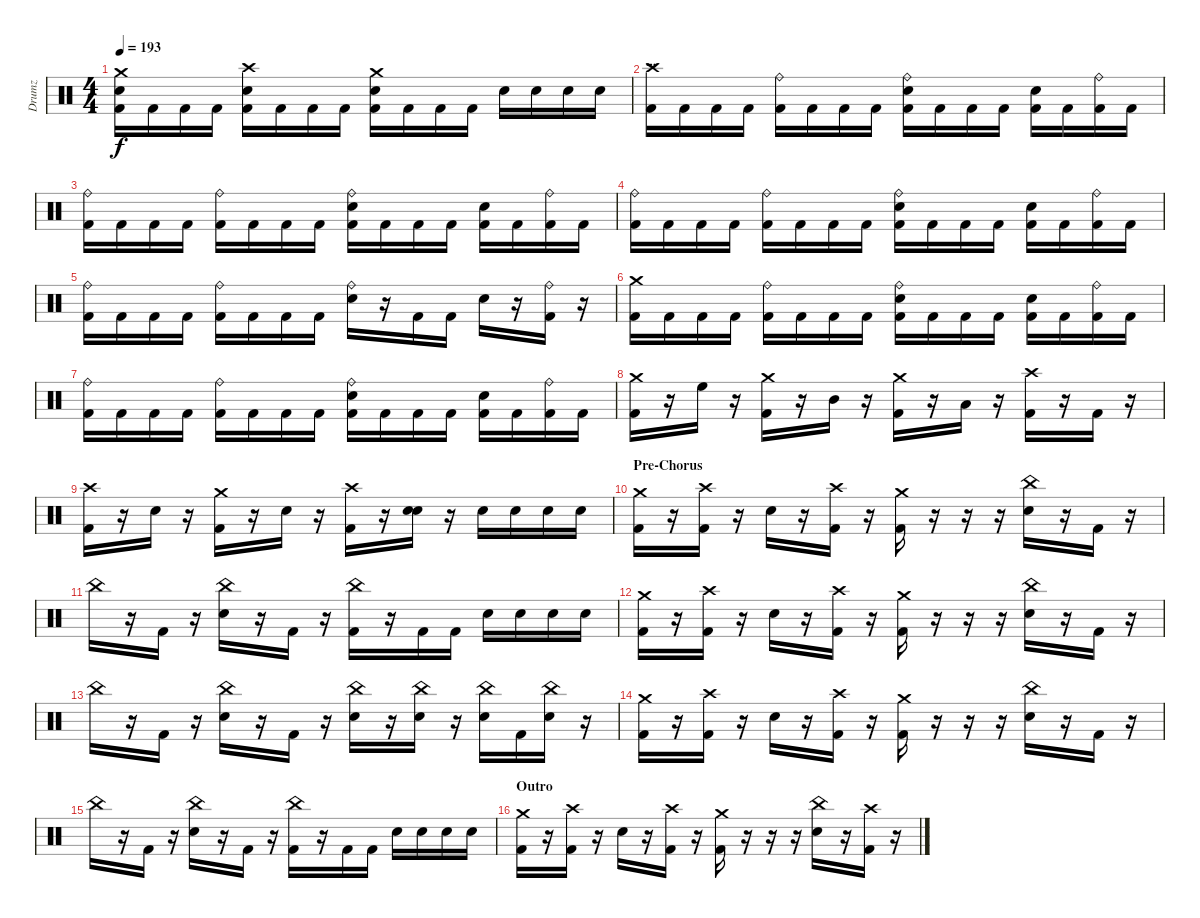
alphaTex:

\track ("Drumz" "Drumz") {instrument percussion}
\staff {score}
\articulation defaults
\ts (4 4)
\tempo 193
\clef neutral
\ks c
("Crash medium (hit)" "Electric Snare (hit)" "Kick (hit) 2").16{dy f} "Kick (hit) 2".16 "Kick (hit) 2".16 "Kick (hit) 2".16 ("Crash high (hit)" "Electric Snare (hit)" "Kick (hit) 2").16 "Kick (hit) 2".16 "Kick (hit) 2".16 "Kick (hit) 2".16 ("Crash medium (hit)" "Electric Snare (hit)" "Kick (hit) 2").16 "Kick (hit) 2".16 "Kick (hit) 2".16 "Kick (hit) 2".16 "Electric Snare (hit)".16 "Electric Snare (hit)".16 "Electric Snare (hit)".16 "Electric Snare (hit)".16 |
\section ("" "...")
("Crash high (hit)" "Kick (hit) 2").16 "Kick (hit) 2".16 "Kick (hit) 2".16 "Kick (hit) 2".16 ("Ride (bell)" "Kick (hit) 2").16 "Kick (hit) 2".16 "Kick (hit) 2".16 "Kick (hit) 2".16 ("Ride (bell)" "Electric Snare (hit)" "Kick (hit) 2").16 "Kick (hit) 2".16 "Kick (hit) 2".16 "Kick (hit) 2".16 ("Electric Snare (hit)" "Kick (hit) 2").16 "Kick (hit) 2".16 ("Ride (bell)" "Kick (hit) 2").16 "Kick (hit) 2".16 |
("Ride (bell)" "Kick (hit) 2").16 "Kick (hit) 2".16 "Kick (hit) 2".16 "Kick (hit) 2".16 ("Ride (bell)" "Kick (hit) 2").16 "Kick (hit) 2".16 "Kick (hit) 2".16 "Kick (hit) 2".16 ("Ride (bell)" "Electric Snare (hit)" "Kick (hit) 2").16 "Kick (hit) 2".16 "Kick (hit) 2".16 "Kick (hit) 2".16 ("Electric Snare (hit)" "Kick (hit) 2").16 "Kick (hit) 2".16 ("Ride (bell)" "Kick (hit) 2").16 "Kick (hit) 2".16 |
("Ride (bell)" "Kick (hit) 2").16 "Kick (hit) 2".16 "Kick (hit) 2".16 "Kick (hit) 2".16 ("Ride (bell)" "Kick (hit) 2").16 "Kick (hit) 2".16 "Kick (hit) 2".16 "Kick (hit) 2".16 ("Ride (bell)" "Electric Snare (hit)" "Kick (hit) 2").16 "Kick (hit) 2".16 "Kick (hit) 2".16 "Kick (hit) 2".16 ("Electric Snare (hit)" "Kick (hit) 2").16 "Kick (hit) 2".16 ("Ride (bell)" "Kick (hit) 2").16 "Kick (hit) 2".16 |
("Ride (bell)" "Kick (hit) 2").16 "Kick (hit) 2".16 "Kick (hit) 2".16 "Kick (hit) 2".16 ("Ride (bell)" "Kick (hit) 2").16 "Kick (hit) 2".16 "Kick (hit) 2".16 "Kick (hit) 2".16 ("Ride (bell)" "Electric Snare (hit)").16 r.16 "Kick (hit) 2".16 "Kick (hit) 2".16 "Electric Snare (hit)".16 r.16 ("Ride (bell)" "Kick (hit) 2").16 r.16 |
("Crash medium (hit)" "Kick (hit) 2").16 "Kick (hit) 2".16 "Kick (hit) 2".16 "Kick (hit) 2".16 ("Ride (bell)" "Kick (hit) 2").16 "Kick (hit) 2".16 "Kick (hit) 2".16 "Kick (hit) 2".16 ("Ride (bell)" "Electric Snare (hit)" "Kick (hit) 2").16 "Kick (hit) 2".16 "Kick (hit) 2".16 "Kick (hit) 2".16 ("Electric Snare (hit)" "Kick (hit) 2").16 "Kick (hit) 2".16 ("Ride (bell)" "Kick (hit) 2").16 "Kick (hit) 2".16 |
("Ride (bell)" "Kick (hit) 2").16 "Kick (hit) 2".16 "Kick (hit) 2".16 "Kick (hit) 2".16 ("Ride (bell)" "Kick (hit) 2").16 "Kick (hit) 2".16 "Kick (hit) 2".16 "Kick (hit) 2".16 ("Ride (bell)" "Electric Snare (hit)" "Kick (hit) 2").16 "Kick (hit) 2".16 "Kick (hit) 2".16 "Kick (hit) 2".16 ("Electric Snare (hit)" "Kick (hit) 2").16 "Kick (hit) 2".16 ("Ride (bell)" "Kick (hit) 2").16 "Kick (hit) 2".16 |
("Crash medium (hit)" "Kick (hit) 2").16 r.16 "High Floor Tom (hit)".16 r.16 ("Crash medium (hit)" "Kick (hit) 2").16 r.16 "Mid Tom (hit)".16 r.16 ("Crash medium (hit)" "Kick (hit) 2").16 r.16 "Low Tom (hit)".16 r.16 ("Crash high (hit)" "Kick (hit) 2").16 r.16 "Kick (hit) 2".16 r.16 |
("Crash high (hit)" "Kick (hit) 2").16 r.16 "Electric Snare (hit)".16 r.16 ("Crash medium (hit)" "Kick (hit) 2").16 r.16 "Electric Snare (hit)".16 r.16 ("Crash high (hit)" "Kick (hit) 2").16 r.16 ("Electric Snare (hit)" "Electric Snare (hit)").16 r.16 "Electric Snare (hit)".16 "Electric Snare (hit)".16 "Electric Snare (hit)".16 "Electric Snare (hit)".16 |
\section ("" "Pre-Chorus")
("Crash medium (hit)" "Kick (hit) 2").16 r.16 ("Crash high (hit)" "Kick (hit) 2").16 r.16 "Electric Snare (hit)".16 r.16 ("Crash high (hit)" "Kick (hit) 2").16 r.16 ("Crash medium (hit)" "Kick (hit) 2").16 r.16 r.16 r.16 ("China (hit)" "Electric Snare (hit)").16 r.16 "Kick (hit) 2".16 r.16 |
"China (hit)".16 r.16 "Kick (hit) 2".16 r.16 ("China (hit)" "Electric Snare (hit)").16 r.16 "Kick (hit) 2".16 r.16 ("China (hit)" "Kick (hit) 2").16 r.16 "Kick (hit) 2".16 "Kick (hit) 2".16 "Electric Snare (hit)".16 "Electric Snare (hit)".16 "Electric Snare (hit)".16 "Electric Snare (hit)".16 |
("Crash medium (hit)" "Kick (hit) 2").16 r.16 ("Crash high (hit)" "Kick (hit) 2").16 r.16 "Electric Snare (hit)".16 r.16 ("Crash high (hit)" "Kick (hit) 2").16 r.16 ("Crash medium (hit)" "Kick (hit) 2").16 r.16 r.16 r.16 ("China (hit)" "Electric Snare (hit)").16 r.16 "Kick (hit) 2".16 r.16 |
"China (hit)".16 r.16 "Kick (hit) 2".16 r.16 ("China (hit)" "Electric Snare (hit)").16 r.16 "Kick (hit) 2".16 r.16 ("China (hit)" "Electric Snare (hit)").16 r.16 ("China (hit)" "Electric Snare (hit)").16 r.16 ("China (hit)" "Electric Snare (hit)").16 "Kick (hit) 2".16 ("China (hit)" "Electric Snare (hit)").16 r.16 |
("Crash medium (hit)" "Kick (hit) 2").16 r.16 ("Crash high (hit)" "Kick (hit) 2").16 r.16 "Electric Snare (hit)".16 r.16 ("Crash high (hit)" "Kick (hit) 2").16 r.16 ("Crash medium (hit)" "Kick (hit) 2").16 r.16 r.16 r.16 ("China (hit)" "Electric Snare (hit)").16 r.16 "Kick (hit) 2".16 r.16 |
"China (hit)".16 r.16 "Kick (hit) 2".16 r.16 ("China (hit)" "Electric Snare (hit)").16 r.16 "Kick (hit) 2".16 r.16 ("China (hit)" "Kick (hit) 2").16 r.16 "Kick (hit) 2".16 "Kick (hit) 2".16 "Electric Snare (hit)".16 "Electric Snare (hit)".16 "Electric Snare (hit)".16 "Electric Snare (hit)".16 |
\section ("" "Outro")
("Crash medium (hit)" "Kick (hit) 2").16 r.16 ("Crash high (hit)" "Kick (hit) 2").16 r.16 "Electric Snare (hit)".16 r.16 ("Crash high (hit)" "Kick (hit) 2").16 r.16 ("Crash medium (hit)" "Kick (hit) 2").16 r.16 r.16 r.16 ("China (hit)" "Electric Snare (hit)").16 r.16 ("Crash high (hit)" "Kick (hit) 2").16 r.16
